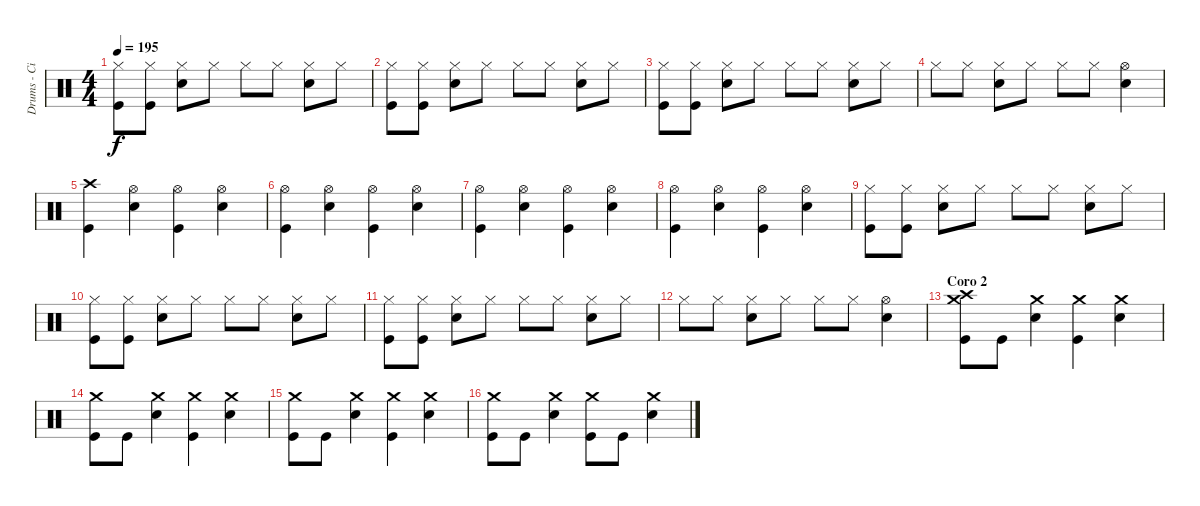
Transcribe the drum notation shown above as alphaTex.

\track ("Drums - Ciro" "Drums - Ci") {instrument percussion}
\staff {score}
\articulation defaults
\ts (4 4)
\tempo 195
\clef neutral
\ks c
("Hi-Hat (closed)" "Kick (hit)").8{dy f} ("Hi-Hat (closed)" "Kick (hit)").8 ("Hi-Hat (closed)" "Electric Snare (hit)").8 "Hi-Hat (closed)".8 "Hi-Hat (closed)".8 "Hi-Hat (closed)".8 ("Hi-Hat (closed)" "Electric Snare (hit)").8 "Hi-Hat (closed)".8 |
("Hi-Hat (closed)" "Kick (hit)").8 ("Hi-Hat (closed)" "Kick (hit)").8 ("Hi-Hat (closed)" "Electric Snare (hit)").8 "Hi-Hat (closed)".8 "Hi-Hat (closed)".8 "Hi-Hat (closed)".8 ("Hi-Hat (closed)" "Electric Snare (hit)").8 "Hi-Hat (closed)".8 |
("Hi-Hat (closed)" "Kick (hit)").8 ("Hi-Hat (closed)" "Kick (hit)").8 ("Hi-Hat (closed)" "Electric Snare (hit)").8 "Hi-Hat (closed)".8 "Hi-Hat (closed)".8 "Hi-Hat (closed)".8 ("Hi-Hat (closed)" "Electric Snare (hit)").8 "Hi-Hat (closed)".8 |
"Hi-Hat (closed)".8 "Hi-Hat (closed)".8 ("Hi-Hat (closed)" "Electric Snare (hit)").8 "Hi-Hat (closed)".8 "Hi-Hat (closed)".8 "Hi-Hat (closed)".8 ("Hi-Hat (open)" "Electric Snare (hit)").4 |
("Crash high (hit)" "Kick (hit)").4 ("Hi-Hat (open)" "Electric Snare (hit)").4 ("Hi-Hat (open)" "Kick (hit)").4 ("Hi-Hat (open)" "Electric Snare (hit)").4 |
("Hi-Hat (open)" "Kick (hit)").4 ("Hi-Hat (open)" "Electric Snare (hit)").4 ("Hi-Hat (open)" "Kick (hit)").4 ("Hi-Hat (open)" "Electric Snare (hit)").4 |
("Hi-Hat (open)" "Kick (hit)").4 ("Hi-Hat (open)" "Electric Snare (hit)").4 ("Hi-Hat (open)" "Kick (hit)").4 ("Hi-Hat (open)" "Electric Snare (hit)").4 |
("Hi-Hat (open)" "Kick (hit)").4 ("Hi-Hat (open)" "Electric Snare (hit)").4 ("Hi-Hat (open)" "Kick (hit)").4 ("Hi-Hat (open)" "Electric Snare (hit)").4 |
("Hi-Hat (closed)" "Kick (hit)").8 ("Hi-Hat (closed)" "Kick (hit)").8 ("Hi-Hat (closed)" "Electric Snare (hit)").8 "Hi-Hat (closed)".8 "Hi-Hat (closed)".8 "Hi-Hat (closed)".8 ("Hi-Hat (closed)" "Electric Snare (hit)").8 "Hi-Hat (closed)".8 |
("Hi-Hat (closed)" "Kick (hit)").8 ("Hi-Hat (closed)" "Kick (hit)").8 ("Hi-Hat (closed)" "Electric Snare (hit)").8 "Hi-Hat (closed)".8 "Hi-Hat (closed)".8 "Hi-Hat (closed)".8 ("Hi-Hat (closed)" "Electric Snare (hit)").8 "Hi-Hat (closed)".8 |
("Hi-Hat (closed)" "Kick (hit)").8 ("Hi-Hat (closed)" "Kick (hit)").8 ("Hi-Hat (closed)" "Electric Snare (hit)").8 "Hi-Hat (closed)".8 "Hi-Hat (closed)".8 "Hi-Hat (closed)".8 ("Hi-Hat (closed)" "Electric Snare (hit)").8 "Hi-Hat (closed)".8 |
"Hi-Hat (closed)".8 "Hi-Hat (closed)".8 ("Hi-Hat (closed)" "Electric Snare (hit)").8 "Hi-Hat (closed)".8 "Hi-Hat (closed)".8 "Hi-Hat (closed)".8 ("Hi-Hat (open)" "Electric Snare (hit)").4 |
\section ("" "Coro 2")
("Crash medium (hit)" "Crash high (hit)" "Kick (hit)").8 "Kick (hit)".8 ("Crash medium (hit)" "Electric Snare (hit)").4 ("Crash medium (hit)" "Kick (hit)").4 ("Crash medium (hit)" "Electric Snare (hit)").4 |
("Crash medium (hit)" "Kick (hit)").8 "Kick (hit)".8 ("Crash medium (hit)" "Electric Snare (hit)").4 ("Crash medium (hit)" "Kick (hit)").4 ("Crash medium (hit)" "Electric Snare (hit)").4 |
("Crash medium (hit)" "Kick (hit)").8 "Kick (hit)".8 ("Crash medium (hit)" "Electric Snare (hit)").4 ("Crash medium (hit)" "Kick (hit)").4 ("Crash medium (hit)" "Electric Snare (hit)").4 |
("Crash medium (hit)" "Kick (hit)").8 "Kick (hit)".8 ("Crash medium (hit)" "Electric Snare (hit)").4 ("Crash medium (hit)" "Kick (hit)").8 "Kick (hit)".8 ("Crash medium (hit)" "Electric Snare (hit)").4
